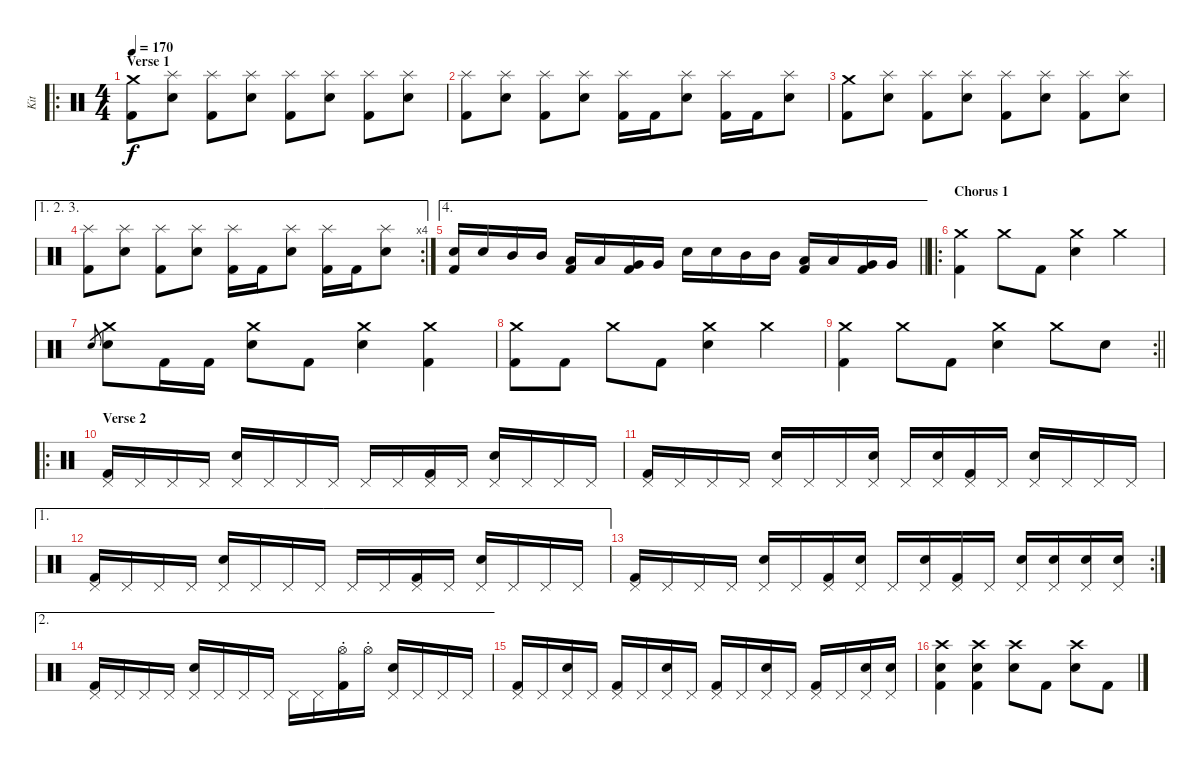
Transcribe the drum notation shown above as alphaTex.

\track ("Kit" "Kit") {instrument percussion}
\staff {score}
\articulation defaults
\ro
\ts (4 4)
\section ("" "Verse 1")
\tempo 170
\clef neutral
\ks c
("Crash medium (hit)" "Kick (hit) 2").8{dy f} ("Splash (hit)" "Electric Snare (hit)").8 ("Splash (hit)" "Kick (hit) 2").8 ("Splash (hit)" "Electric Snare (hit)").8 ("Splash (hit)" "Kick (hit) 2").8 ("Splash (hit)" "Electric Snare (hit)").8 ("Splash (hit)" "Kick (hit) 2").8 ("Splash (hit)" "Electric Snare (hit)").8 |
("Splash (hit)" "Kick (hit) 2").8 ("Splash (hit)" "Electric Snare (hit)").8 ("Splash (hit)" "Kick (hit) 2").8 ("Splash (hit)" "Electric Snare (hit)").8 ("Splash (hit)" "Kick (hit) 2").16 "Kick (hit) 2".16 ("Splash (hit)" "Electric Snare (hit)").8 ("Splash (hit)" "Kick (hit) 2").16 "Kick (hit) 2".16 ("Splash (hit)" "Electric Snare (hit)").8 |
("Crash medium (hit)" "Kick (hit) 2").8 ("Splash (hit)" "Electric Snare (hit)").8 ("Splash (hit)" "Kick (hit) 2").8 ("Splash (hit)" "Electric Snare (hit)").8 ("Splash (hit)" "Kick (hit) 2").8 ("Splash (hit)" "Electric Snare (hit)").8 ("Splash (hit)" "Kick (hit) 2").8 ("Splash (hit)" "Electric Snare (hit)").8 |
\ae (1 2 3)
\rc 4
("Splash (hit)" "Kick (hit) 2").8 ("Splash (hit)" "Electric Snare (hit)").8 ("Splash (hit)" "Kick (hit) 2").8 ("Splash (hit)" "Electric Snare (hit)").8 ("Splash (hit)" "Kick (hit) 2").16 "Kick (hit) 2".16 ("Splash (hit)" "Electric Snare (hit)").8 ("Splash (hit)" "Kick (hit) 2").16 "Kick (hit) 2".16 ("Splash (hit)" "Electric Snare (hit)").8 |
\ae 4
\barLineRight lightlight
("Electric Snare (hit)" "Kick (hit) 2").16 "Electric Snare (hit)".16 "Mid Tom (hit)".16 "Mid Tom (hit)".16 ("Low Tom (hit)" "Kick (hit) 2").16 "Low Tom (hit)".16 ("Very Low Tom (hit)" "Kick (hit) 2").16 "Very Low Tom (hit)".16 "Electric Snare (hit)".16 "Electric Snare (hit)".16 "Mid Tom (hit)".16 "Mid Tom (hit)".16 ("Low Tom (hit)" "Kick (hit) 2").16 "Low Tom (hit)".16 ("Very Low Tom (hit)" "Kick (hit) 2").16 "Very Low Tom (hit)".16 |
\ro
\section ("" "Chorus 1")
("Crash medium (hit)" "Kick (hit) 2").4 "Crash medium (hit)".8 "Kick (hit) 2".8 ("Crash medium (hit)" "Electric Snare (hit)").4 "Crash medium (hit)".4 |
"Electric Snare (hit)".8{gr} ("Crash medium (hit)" "Electric Snare (hit)").8 "Kick (hit) 2".16 "Kick (hit) 2".16 ("Crash medium (hit)" "Electric Snare (hit)").8 "Kick (hit) 2".8 ("Crash medium (hit)" "Electric Snare (hit)").4 ("Crash medium (hit)" "Kick (hit) 2").4 |
("Crash medium (hit)" "Kick (hit) 2").8 "Kick (hit) 2".8 "Crash medium (hit)".8 "Kick (hit) 2".8 ("Crash medium (hit)" "Electric Snare (hit)").4 "Crash medium (hit)".4 |
\rc 2
\barLineRight lightlight
("Crash medium (hit)" "Kick (hit) 2").4 "Crash medium (hit)".8 "Kick (hit) 2".8 ("Crash medium (hit)" "Electric Snare (hit)").4 "Crash medium (hit)".8 "Electric Snare (hit)".8 |
\ro
\section ("" "Verse 2")
("Pedal Hi-Hat (hit)" "Kick (hit) 2").16 "Pedal Hi-Hat (hit)".16 "Pedal Hi-Hat (hit)".16 "Pedal Hi-Hat (hit)".16 ("Pedal Hi-Hat (hit)" "Electric Snare (hit)").16 "Pedal Hi-Hat (hit)".16 "Pedal Hi-Hat (hit)".16 "Pedal Hi-Hat (hit)".16 "Pedal Hi-Hat (hit)".16 "Pedal Hi-Hat (hit)".16 ("Pedal Hi-Hat (hit)" "Kick (hit) 2").16 "Pedal Hi-Hat (hit)".16 ("Pedal Hi-Hat (hit)" "Electric Snare (hit)").16 "Pedal Hi-Hat (hit)".16 "Pedal Hi-Hat (hit)".16 "Pedal Hi-Hat (hit)".16 |
("Pedal Hi-Hat (hit)" "Kick (hit) 2").16 "Pedal Hi-Hat (hit)".16 "Pedal Hi-Hat (hit)".16 "Pedal Hi-Hat (hit)".16 ("Pedal Hi-Hat (hit)" "Electric Snare (hit)").16 "Pedal Hi-Hat (hit)".16 "Pedal Hi-Hat (hit)".16 ("Pedal Hi-Hat (hit)" "Electric Snare (hit)").16 "Pedal Hi-Hat (hit)".16 ("Pedal Hi-Hat (hit)" "Electric Snare (hit)").16 ("Pedal Hi-Hat (hit)" "Kick (hit) 2").16 "Pedal Hi-Hat (hit)".16 ("Pedal Hi-Hat (hit)" "Electric Snare (hit)").16 "Pedal Hi-Hat (hit)".16 "Pedal Hi-Hat (hit)".16 "Pedal Hi-Hat (hit)".16 |
\ae 1
("Pedal Hi-Hat (hit)" "Kick (hit) 2").16 "Pedal Hi-Hat (hit)".16 "Pedal Hi-Hat (hit)".16 "Pedal Hi-Hat (hit)".16 ("Pedal Hi-Hat (hit)" "Electric Snare (hit)").16 "Pedal Hi-Hat (hit)".16 "Pedal Hi-Hat (hit)".16 "Pedal Hi-Hat (hit)".16 "Pedal Hi-Hat (hit)".16 "Pedal Hi-Hat (hit)".16 ("Pedal Hi-Hat (hit)" "Kick (hit) 2").16 "Pedal Hi-Hat (hit)".16 ("Pedal Hi-Hat (hit)" "Electric Snare (hit)").16 "Pedal Hi-Hat (hit)".16 "Pedal Hi-Hat (hit)".16 "Pedal Hi-Hat (hit)".16 |
\rc 2
("Pedal Hi-Hat (hit)" "Kick (hit) 2").16 "Pedal Hi-Hat (hit)".16 "Pedal Hi-Hat (hit)".16 "Pedal Hi-Hat (hit)".16 ("Pedal Hi-Hat (hit)" "Electric Snare (hit)").16 "Pedal Hi-Hat (hit)".16 ("Pedal Hi-Hat (hit)" "Kick (hit) 2").16 ("Pedal Hi-Hat (hit)" "Electric Snare (hit)").16 "Pedal Hi-Hat (hit)".16 ("Pedal Hi-Hat (hit)" "Electric Snare (hit)").16 ("Pedal Hi-Hat (hit)" "Kick (hit) 2").16 "Pedal Hi-Hat (hit)".16 ("Pedal Hi-Hat (hit)" "Electric Snare (hit)").16 ("Pedal Hi-Hat (hit)" "Electric Snare (hit)").16 ("Pedal Hi-Hat (hit)" "Electric Snare (hit)").16 ("Pedal Hi-Hat (hit)" "Electric Snare (hit)").16 |
\ae 2
("Pedal Hi-Hat (hit)" "Kick (hit) 2").16 "Pedal Hi-Hat (hit)".16 "Pedal Hi-Hat (hit)".16 "Pedal Hi-Hat (hit)".16 ("Pedal Hi-Hat (hit)" "Electric Snare (hit)").16 "Pedal Hi-Hat (hit)".16 "Pedal Hi-Hat (hit)".16 "Pedal Hi-Hat (hit)".16 "Pedal Hi-Hat (hit)".16 "Pedal Hi-Hat (hit)".16 ("Hi-Hat (open)"{st} "Kick (hit) 2").16 "Hi-Hat (open)"{st}.16 ("Pedal Hi-Hat (hit)" "Electric Snare (hit)").16 "Pedal Hi-Hat (hit)".16 "Pedal Hi-Hat (hit)".16 "Pedal Hi-Hat (hit)".16 |
("Pedal Hi-Hat (hit)" "Kick (hit) 2").16 "Pedal Hi-Hat (hit)".16 ("Pedal Hi-Hat (hit)" "Electric Snare (hit)").16 "Pedal Hi-Hat (hit)".16 ("Pedal Hi-Hat (hit)" "Kick (hit) 2").16 "Pedal Hi-Hat (hit)".16 ("Pedal Hi-Hat (hit)" "Electric Snare (hit)").16 "Pedal Hi-Hat (hit)".16 ("Pedal Hi-Hat (hit)" "Kick (hit) 2").16 "Pedal Hi-Hat (hit)".16 ("Pedal Hi-Hat (hit)" "Electric Snare (hit)").16 "Pedal Hi-Hat (hit)".16 ("Pedal Hi-Hat (hit)" "Kick (hit) 2").16 "Pedal Hi-Hat (hit)".16 ("Pedal Hi-Hat (hit)" "Electric Snare (hit)").16 ("Pedal Hi-Hat (hit)" "Electric Snare (hit)").16 |
("Crash high (hit)" "Electric Snare (hit)" "Kick (hit) 2").4 ("Crash high (hit)" "Electric Snare (hit)" "Kick (hit) 2").4 ("Crash high (hit)" "Electric Snare (hit)").8 "Kick (hit) 2".8 ("Crash high (hit)" "Electric Snare (hit)").8 "Kick (hit) 2".8
